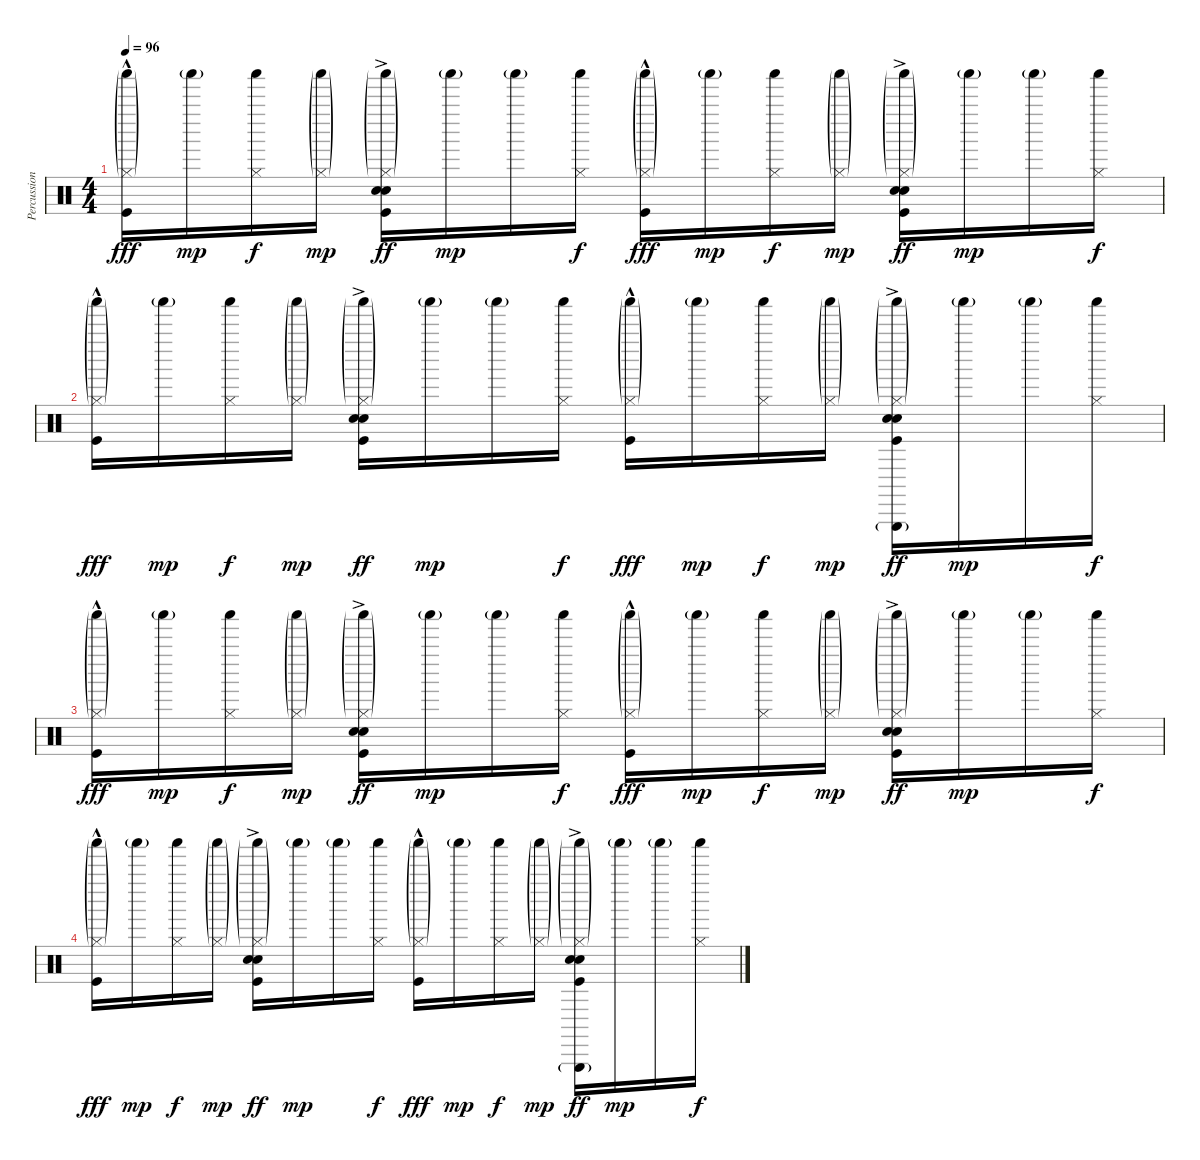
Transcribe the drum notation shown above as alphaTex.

\track ("Percussion" "Percussion") {instrument percussion}
\staff {score}
\articulation defaults
\ts (4 4)
\tempo 96
\clef neutral
\ks c
("Shaker (hit)"{g} "Hi-Hat (closed)"{g} "Kick (hit)"{hac}).16{dy fff} "Shaker (hit)"{g}.16{dy mp} ("Shaker (hit)" "Hi-Hat (closed)").16{dy f} ("Shaker (hit)"{g} "Hi-Hat (closed)"{g}).16{dy mp} ("Shaker (hit)"{g} "Hi-Hat (closed)"{g} "Hand Clap (hit)"{ac} "Snare (hit) 2"{ac} "Kick (hit)"{ac}).16{dy ff} "Shaker (hit)"{g}.16{dy mp} "Shaker (hit)"{g}.16 ("Shaker (hit)" "Hi-Hat (closed)").16{dy f} ("Shaker (hit)"{g} "Hi-Hat (closed)"{g} "Kick (hit)"{hac}).16{dy fff} "Shaker (hit)"{g}.16{dy mp} ("Shaker (hit)" "Hi-Hat (closed)").16{dy f} ("Shaker (hit)"{g} "Hi-Hat (closed)"{g}).16{dy mp} ("Shaker (hit)"{g} "Hi-Hat (closed)"{g} "Hand Clap (hit)"{ac} "Snare (hit) 2"{ac} "Kick (hit)"{ac}).16{dy ff} "Shaker (hit)"{g}.16{dy mp} "Shaker (hit)"{g}.16 ("Shaker (hit)" "Hi-Hat (closed)").16{dy f} |
("Shaker (hit)"{g} "Hi-Hat (closed)"{g} "Kick (hit)"{hac}).16{dy fff} "Shaker (hit)"{g}.16{dy mp} ("Shaker (hit)" "Hi-Hat (closed)").16{dy f} ("Shaker (hit)"{g} "Hi-Hat (closed)"{g}).16{dy mp} ("Shaker (hit)"{g} "Hi-Hat (closed)"{g} "Hand Clap (hit)"{ac} "Snare (hit) 2"{ac} "Kick (hit)"{ac}).16{dy ff} "Shaker (hit)"{g}.16{dy mp} "Shaker (hit)"{g}.16 ("Shaker (hit)" "Hi-Hat (closed)").16{dy f} ("Shaker (hit)"{g} "Hi-Hat (closed)"{g} "Kick (hit)"{hac}).16{dy fff} "Shaker (hit)"{g}.16{dy mp} ("Shaker (hit)" "Hi-Hat (closed)").16{dy f} ("Shaker (hit)"{g} "Hi-Hat (closed)"{g}).16{dy mp} ("Triangle (hit)"{g} "Shaker (hit)"{g} "Hi-Hat (closed)"{g} "Hand Clap (hit)"{ac} "Snare (hit) 2"{ac} "Kick (hit)"{ac}).16{dy ff} "Shaker (hit)"{g}.16{dy mp} "Shaker (hit)"{g}.16 ("Shaker (hit)" "Hi-Hat (closed)").16{dy f} |
("Shaker (hit)"{g} "Hi-Hat (closed)"{g} "Kick (hit)"{hac}).16{dy fff} "Shaker (hit)"{g}.16{dy mp} ("Shaker (hit)" "Hi-Hat (closed)").16{dy f} ("Shaker (hit)"{g} "Hi-Hat (closed)"{g}).16{dy mp} ("Shaker (hit)"{g} "Hi-Hat (closed)"{g} "Hand Clap (hit)"{ac} "Snare (hit) 2"{ac} "Kick (hit)"{ac}).16{dy ff} "Shaker (hit)"{g}.16{dy mp} "Shaker (hit)"{g}.16 ("Shaker (hit)" "Hi-Hat (closed)").16{dy f} ("Shaker (hit)"{g} "Hi-Hat (closed)"{g} "Kick (hit)"{hac}).16{dy fff} "Shaker (hit)"{g}.16{dy mp} ("Shaker (hit)" "Hi-Hat (closed)").16{dy f} ("Shaker (hit)"{g} "Hi-Hat (closed)"{g}).16{dy mp} ("Shaker (hit)"{g} "Hi-Hat (closed)"{g} "Hand Clap (hit)"{ac} "Snare (hit) 2"{ac} "Kick (hit)"{ac}).16{dy ff} "Shaker (hit)"{g}.16{dy mp} "Shaker (hit)"{g}.16 ("Shaker (hit)" "Hi-Hat (closed)").16{dy f} |
("Shaker (hit)"{g} "Hi-Hat (closed)"{g} "Kick (hit)"{hac}).16{dy fff} "Shaker (hit)"{g}.16{dy mp} ("Shaker (hit)" "Hi-Hat (closed)").16{dy f} ("Shaker (hit)"{g} "Hi-Hat (closed)"{g}).16{dy mp} ("Shaker (hit)"{g} "Hi-Hat (closed)"{g} "Hand Clap (hit)"{ac} "Snare (hit) 2"{ac} "Kick (hit)"{ac}).16{dy ff} "Shaker (hit)"{g}.16{dy mp} "Shaker (hit)"{g}.16 ("Shaker (hit)" "Hi-Hat (closed)").16{dy f} ("Shaker (hit)"{g} "Hi-Hat (closed)"{g} "Kick (hit)"{hac}).16{dy fff} "Shaker (hit)"{g}.16{dy mp} ("Shaker (hit)" "Hi-Hat (closed)").16{dy f} ("Shaker (hit)"{g} "Hi-Hat (closed)"{g}).16{dy mp} ("Triangle (hit)"{g} "Shaker (hit)"{g} "Hi-Hat (closed)"{g} "Hand Clap (hit)"{ac} "Snare (hit) 2"{ac} "Kick (hit)"{ac}).16{dy ff} "Shaker (hit)"{g}.16{dy mp} "Shaker (hit)"{g}.16 ("Shaker (hit)" "Hi-Hat (closed)").16{dy f}
